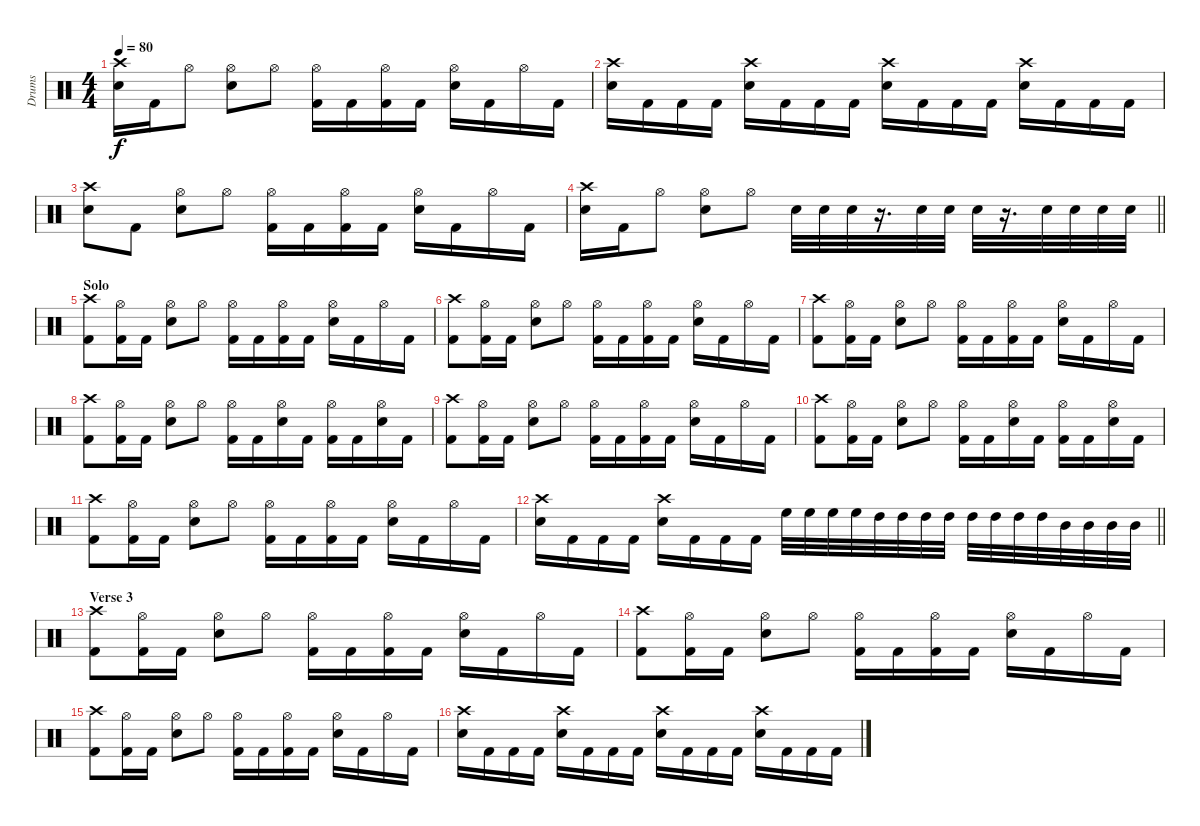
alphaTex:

\track ("Drums" "Drums") {instrument percussion}
\staff {score}
\articulation defaults
\ts (4 4)
\tempo 80
\clef neutral
\ks c
("Crash high (hit)" "Electric Snare (hit)").16{dy f} "Kick (hit) 2".16 "Hi-Hat (open)".8 ("Hi-Hat (open)" "Electric Snare (hit)").8 "Hi-Hat (open)".8 ("Hi-Hat (open)" "Kick (hit) 2").16 "Kick (hit) 2".16 ("Hi-Hat (open)" "Kick (hit) 2").16 "Kick (hit) 2".16 ("Hi-Hat (open)" "Electric Snare (hit)").16 "Kick (hit) 2".16 "Hi-Hat (open)".16 "Kick (hit) 2".16 |
("Crash high (hit)" "Electric Snare (hit)").16 "Kick (hit) 2".16 "Kick (hit) 2".16 "Kick (hit) 2".16 ("Crash high (hit)" "Electric Snare (hit)").16 "Kick (hit) 2".16 "Kick (hit) 2".16 "Kick (hit) 2".16 ("Crash high (hit)" "Electric Snare (hit)").16 "Kick (hit) 2".16 "Kick (hit) 2".16 "Kick (hit) 2".16 ("Crash high (hit)" "Electric Snare (hit)").16 "Kick (hit) 2".16 "Kick (hit) 2".16 "Kick (hit) 2".16 |
("Crash high (hit)" "Electric Snare (hit)").8 "Kick (hit) 2".8 ("Hi-Hat (open)" "Electric Snare (hit)").8 "Hi-Hat (open)".8 ("Hi-Hat (open)" "Kick (hit) 2").16 "Kick (hit) 2".16 ("Hi-Hat (open)" "Kick (hit) 2").16 "Kick (hit) 2".16 ("Hi-Hat (open)" "Electric Snare (hit)").16 "Kick (hit) 2".16 "Hi-Hat (open)".16 "Kick (hit) 2".16 |
\barLineRight lightlight
("Crash high (hit)" "Electric Snare (hit)").16 "Kick (hit) 2".16 "Hi-Hat (open)".8 ("Hi-Hat (open)" "Electric Snare (hit)").8 "Hi-Hat (open)".8 "Electric Snare (hit)".32 "Electric Snare (hit)".32 "Electric Snare (hit)".32 r.16{d} "Electric Snare (hit)".32 "Electric Snare (hit)".32 "Electric Snare (hit)".32 r.16{d} "Electric Snare (hit)".32 "Electric Snare (hit)".32 "Electric Snare (hit)".32 "Electric Snare (hit)".32 |
\section ("" "Solo")
("Crash high (hit)" "Kick (hit) 2").8 ("Hi-Hat (open)" "Kick (hit) 2").16 "Kick (hit) 2".16 ("Hi-Hat (open)" "Electric Snare (hit)").8 "Hi-Hat (open)".8 ("Hi-Hat (open)" "Kick (hit) 2").16 "Kick (hit) 2".16 ("Hi-Hat (open)" "Kick (hit) 2").16 "Kick (hit) 2".16 ("Hi-Hat (open)" "Electric Snare (hit)").16 "Kick (hit) 2".16 "Hi-Hat (open)".16 "Kick (hit) 2".16 |
("Crash high (hit)" "Kick (hit) 2").8 ("Hi-Hat (open)" "Kick (hit) 2").16 "Kick (hit) 2".16 ("Hi-Hat (open)" "Electric Snare (hit)").8 "Hi-Hat (open)".8 ("Hi-Hat (open)" "Kick (hit) 2").16 "Kick (hit) 2".16 ("Hi-Hat (open)" "Kick (hit) 2").16 "Kick (hit) 2".16 ("Hi-Hat (open)" "Electric Snare (hit)").16 "Kick (hit) 2".16 "Hi-Hat (open)".16 "Kick (hit) 2".16 |
("Crash high (hit)" "Kick (hit) 2").8 ("Hi-Hat (open)" "Kick (hit) 2").16 "Kick (hit) 2".16 ("Hi-Hat (open)" "Electric Snare (hit)").8 "Hi-Hat (open)".8 ("Hi-Hat (open)" "Kick (hit) 2").16 "Kick (hit) 2".16 ("Hi-Hat (open)" "Kick (hit) 2").16 "Kick (hit) 2".16 ("Hi-Hat (open)" "Electric Snare (hit)").16 "Kick (hit) 2".16 "Hi-Hat (open)".16 "Kick (hit) 2".16 |
("Crash high (hit)" "Kick (hit) 2").8 ("Hi-Hat (open)" "Kick (hit) 2").16 "Kick (hit) 2".16 ("Hi-Hat (open)" "Electric Snare (hit)").8 "Hi-Hat (open)".8 ("Hi-Hat (open)" "Kick (hit) 2").16 "Kick (hit) 2".16 ("Hi-Hat (open)" "Electric Snare (hit)").16 "Kick (hit) 2".16 ("Hi-Hat (open)" "Kick (hit) 2").16 "Kick (hit) 2".16 ("Hi-Hat (open)" "Electric Snare (hit)").16 "Kick (hit) 2".16 |
("Crash high (hit)" "Kick (hit) 2").8 ("Hi-Hat (open)" "Kick (hit) 2").16 "Kick (hit) 2".16 ("Hi-Hat (open)" "Electric Snare (hit)").8 "Hi-Hat (open)".8 ("Hi-Hat (open)" "Kick (hit) 2").16 "Kick (hit) 2".16 ("Hi-Hat (open)" "Kick (hit) 2").16 "Kick (hit) 2".16 ("Hi-Hat (open)" "Electric Snare (hit)").16 "Kick (hit) 2".16 "Hi-Hat (open)".16 "Kick (hit) 2".16 |
("Crash high (hit)" "Kick (hit) 2").8 ("Hi-Hat (open)" "Kick (hit) 2").16 "Kick (hit) 2".16 ("Hi-Hat (open)" "Electric Snare (hit)").8 "Hi-Hat (open)".8 ("Hi-Hat (open)" "Kick (hit) 2").16 "Kick (hit) 2".16 ("Hi-Hat (open)" "Electric Snare (hit)").16 "Kick (hit) 2".16 ("Hi-Hat (open)" "Kick (hit) 2").16 "Kick (hit) 2".16 ("Hi-Hat (open)" "Electric Snare (hit)").16 "Kick (hit) 2".16 |
("Crash high (hit)" "Kick (hit) 2").8 ("Hi-Hat (open)" "Kick (hit) 2").16 "Kick (hit) 2".16 ("Hi-Hat (open)" "Electric Snare (hit)").8 "Hi-Hat (open)".8 ("Hi-Hat (open)" "Kick (hit) 2").16 "Kick (hit) 2".16 ("Hi-Hat (open)" "Kick (hit) 2").16 "Kick (hit) 2".16 ("Hi-Hat (open)" "Electric Snare (hit)").16 "Kick (hit) 2".16 "Hi-Hat (open)".16 "Kick (hit) 2".16 |
\barLineRight lightlight
("Crash high (hit)" "Electric Snare (hit)").16 "Kick (hit) 2".16 "Kick (hit) 2".16 "Kick (hit) 2".16 ("Crash high (hit)" "Electric Snare (hit)").16 "Kick (hit) 2".16 "Kick (hit) 2".16 "Kick (hit) 2".16 "High Floor Tom (hit)".32 "High Floor Tom (hit)".32 "High Floor Tom (hit)".32 "High Floor Tom (hit)".32 "High Tom (hit)".32 "High Tom (hit)".32 "High Tom (hit)".32 "High Tom (hit)".32 "High Tom (hit)".32 "High Tom (hit)".32 "High Tom (hit)".32 "High Tom (hit)".32 "Mid Tom (hit)".32 "Mid Tom (hit)".32 "Mid Tom (hit)".32 "Mid Tom (hit)".32 |
\section ("" "Verse 3")
("Crash high (hit)" "Kick (hit) 2").8 ("Hi-Hat (open)" "Kick (hit) 2").16 "Kick (hit) 2".16 ("Hi-Hat (open)" "Electric Snare (hit)").8 "Hi-Hat (open)".8 ("Hi-Hat (open)" "Kick (hit) 2").16 "Kick (hit) 2".16 ("Hi-Hat (open)" "Kick (hit) 2").16 "Kick (hit) 2".16 ("Hi-Hat (open)" "Electric Snare (hit)").16 "Kick (hit) 2".16 "Hi-Hat (open)".16 "Kick (hit) 2".16 |
("Crash high (hit)" "Kick (hit) 2").8 ("Hi-Hat (open)" "Kick (hit) 2").16 "Kick (hit) 2".16 ("Hi-Hat (open)" "Electric Snare (hit)").8 "Hi-Hat (open)".8 ("Hi-Hat (open)" "Kick (hit) 2").16 "Kick (hit) 2".16 ("Hi-Hat (open)" "Kick (hit) 2").16 "Kick (hit) 2".16 ("Hi-Hat (open)" "Electric Snare (hit)").16 "Kick (hit) 2".16 "Hi-Hat (open)".16 "Kick (hit) 2".16 |
("Crash high (hit)" "Kick (hit) 2").8 ("Hi-Hat (open)" "Kick (hit) 2").16 "Kick (hit) 2".16 ("Hi-Hat (open)" "Electric Snare (hit)").8 "Hi-Hat (open)".8 ("Hi-Hat (open)" "Kick (hit) 2").16 "Kick (hit) 2".16 ("Hi-Hat (open)" "Kick (hit) 2").16 "Kick (hit) 2".16 ("Hi-Hat (open)" "Electric Snare (hit)").16 "Kick (hit) 2".16 "Hi-Hat (open)".16 "Kick (hit) 2".16 |
("Crash high (hit)" "Electric Snare (hit)").16 "Kick (hit) 2".16 "Kick (hit) 2".16 "Kick (hit) 2".16 ("Crash high (hit)" "Electric Snare (hit)").16 "Kick (hit) 2".16 "Kick (hit) 2".16 "Kick (hit) 2".16 ("Crash high (hit)" "Electric Snare (hit)").16 "Kick (hit) 2".16 "Kick (hit) 2".16 "Kick (hit) 2".16 ("Crash high (hit)" "Electric Snare (hit)").16 "Kick (hit) 2".16 "Kick (hit) 2".16 "Kick (hit) 2".16
